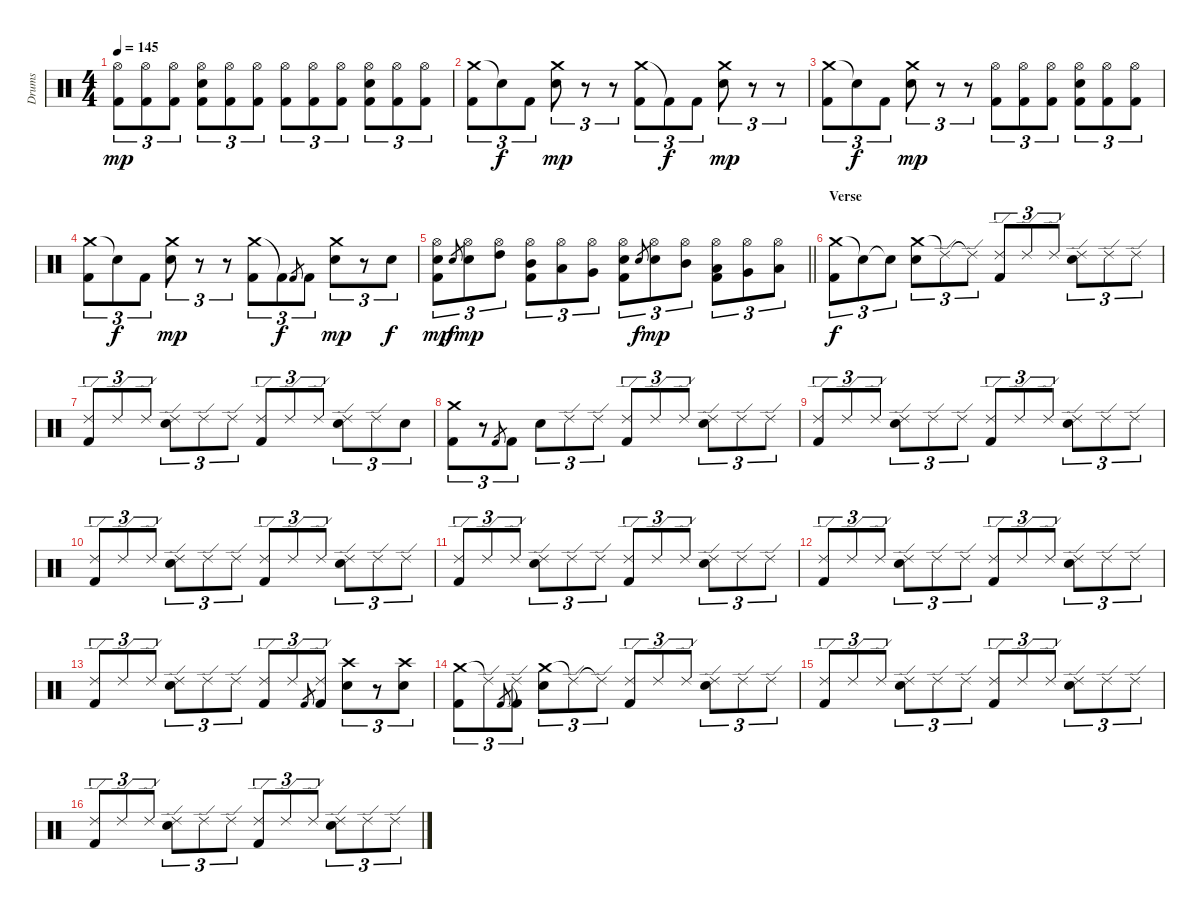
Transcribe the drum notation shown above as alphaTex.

\track ("Drums" "Drums") {instrument percussion}
\staff {score}
\articulation defaults
\ts (4 4)
\tempo 145
\clef neutral
\ks c
("Hi-Hat (open)" "Kick (hit) 2").8{tu (3 2) dy mp} ("Hi-Hat (open)" "Kick (hit) 2").8{tu (3 2)} ("Hi-Hat (open)" "Kick (hit) 2").8{tu (3 2)} ("Hi-Hat (open)" "Snare (hit) 2" "Kick (hit) 2").8{tu (3 2)} ("Hi-Hat (open)" "Kick (hit) 2").8{tu (3 2)} ("Hi-Hat (open)" "Kick (hit) 2").8{tu (3 2)} ("Hi-Hat (open)" "Kick (hit) 2").8{tu (3 2)} ("Hi-Hat (open)" "Kick (hit) 2").8{tu (3 2)} ("Hi-Hat (open)" "Kick (hit) 2").8{tu (3 2)} ("Hi-Hat (open)" "Snare (hit) 2" "Kick (hit) 2").8{tu (3 2)} ("Hi-Hat (open)" "Kick (hit) 2").8{tu (3 2)} ("Hi-Hat (open)" "Kick (hit) 2").8{tu (3 2)} |
("Crash medium (hit)" "Kick (hit) 2").8{tu (3 2)} "Snare (hit)"{t}.8{tu (3 2) dy f} "Kick (hit) 2".8{tu (3 2)} ("Crash medium (hit)" "Snare (hit) 2").8{tu (3 2) dy mp} r.8{tu (3 2)} r.8{tu (3 2)} ("Crash medium (hit)" "Kick (hit) 2").8{tu (3 2)} "Kick (hit) 2"{t}.8{tu (3 2) dy f} "Kick (hit) 2".8{tu (3 2)} ("Crash medium (hit)" "Snare (hit) 2").8{tu (3 2) dy mp} r.8{tu (3 2)} r.8{tu (3 2)} |
("Crash medium (hit)" "Kick (hit) 2").8{tu (3 2)} "Snare (hit)"{t}.8{tu (3 2) dy f} "Kick (hit) 2".8{tu (3 2)} ("Crash medium (hit)" "Snare (hit) 2").8{tu (3 2) dy mp} r.8{tu (3 2)} r.8{tu (3 2)} ("Hi-Hat (open)" "Kick (hit) 2").8{tu (3 2)} ("Hi-Hat (open)" "Kick (hit) 2").8{tu (3 2)} ("Hi-Hat (open)" "Kick (hit) 2").8{tu (3 2)} ("Hi-Hat (open)" "Snare (hit) 2" "Kick (hit) 2").8{tu (3 2)} ("Hi-Hat (open)" "Kick (hit) 2").8{tu (3 2)} ("Hi-Hat (open)" "Kick (hit) 2").8{tu (3 2)} |
("Crash medium (hit)" "Kick (hit) 2").8{tu (3 2)} "Snare (hit)"{t}.8{tu (3 2) dy f} "Kick (hit) 2".8{tu (3 2)} ("Crash medium (hit)" "Snare (hit) 2").8{tu (3 2) dy mp} r.8{tu (3 2)} r.8{tu (3 2)} ("Crash medium (hit)" "Kick (hit) 2").8{tu (3 2)} "Kick (hit) 2"{t}.8{tu (3 2) dy f} "Kick (hit) 2".8{gr} "Kick (hit) 2".8{tu (3 2)} ("Crash medium (hit)" "Snare (hit) 2").8{tu (3 2) dy mp} r.8{tu (3 2)} "Snare (hit) 2".8{tu (3 2) dy f} |
\barLineRight lightlight
("Hi-Hat (open)" "Snare (hit) 2" "Kick (hit) 2").8{tu (3 2) dy mp} "Snare (hit) 2".8{gr dy f} ("Hi-Hat (open)" "Snare (hit) 2").8{tu (3 2) dy mp} ("Hi-Hat (open)" "High Tom (hit)").8{tu (3 2)} ("Hi-Hat (open)" "Mid Tom (hit)" "Kick (hit) 2").8{tu (3 2)} ("Hi-Hat (open)" "Low Tom (hit)").8{tu (3 2)} ("Hi-Hat (open)" "Very Low Tom (hit)").8{tu (3 2)} ("Hi-Hat (open)" "Snare (hit) 2" "Kick (hit) 2").8{tu (3 2)} "Snare (hit) 2".8{gr dy f} ("Hi-Hat (open)" "Snare (hit) 2").8{tu (3 2) dy mp} ("Hi-Hat (open)" "Mid Tom (hit)").8{tu (3 2)} ("Hi-Hat (open)" "Low Tom (hit)" "Kick (hit) 2").8{tu (3 2)} ("Hi-Hat (open)" "Very Low Tom (hit)").8{tu (3 2)} ("Hi-Hat (open)" "Low Floor Tom (hit)").8{tu (3 2)} |
\section ("" "Verse")
("Crash medium (hit)" "Kick (hit) 2").8{tu (3 2) dy f} "Snare (hit)"{t}.8{tu (3 2)} "Snare (hit)"{t}.8{tu (3 2)} ("Crash medium (hit)" "Snare (hit) 2").8{tu (3 2)} "Ride (edge) 2"{t}.8{tu (3 2)} "Ride (edge) 2"{t}.8{tu (3 2)} ("Ride (edge) 2" "Kick (hit) 2").8{tu (3 2)} "Ride (edge) 2".8{tu (3 2)} "Ride (edge) 2".8{tu (3 2)} ("Ride (edge) 2" "Snare (hit) 2").8{tu (3 2)} "Ride (edge) 2".8{tu (3 2)} "Ride (edge) 2".8{tu (3 2)} |
("Ride (edge) 2" "Kick (hit) 2").8{tu (3 2)} "Ride (edge) 2".8{tu (3 2)} "Ride (edge) 2".8{tu (3 2)} ("Ride (edge) 2" "Snare (hit) 2").8{tu (3 2)} "Ride (edge) 2".8{tu (3 2)} "Ride (edge) 2".8{tu (3 2)} ("Ride (edge) 2" "Kick (hit) 2").8{tu (3 2)} "Ride (edge) 2".8{tu (3 2)} "Ride (edge) 2".8{tu (3 2)} ("Ride (edge) 2" "Snare (hit) 2").8{tu (3 2)} "Ride (edge) 2".8{tu (3 2)} "Snare (hit) 2".8{tu (3 2)} |
("Crash medium (hit)" "Kick (hit) 2").8{tu (3 2)} r.8{tu (3 2)} "Kick (hit) 2".8{gr} "Kick (hit) 2".8{tu (3 2)} "Snare (hit) 2".8{tu (3 2)} "Ride (edge) 2".8{tu (3 2)} "Ride (edge) 2".8{tu (3 2)} ("Ride (edge) 2" "Kick (hit) 2").8{tu (3 2)} "Ride (edge) 2".8{tu (3 2)} "Ride (edge) 2".8{tu (3 2)} ("Ride (edge) 2" "Snare (hit) 2").8{tu (3 2)} "Ride (edge) 2".8{tu (3 2)} "Ride (edge) 2".8{tu (3 2)} |
("Ride (edge) 2" "Kick (hit) 2").8{tu (3 2)} "Ride (edge) 2".8{tu (3 2)} "Ride (edge) 2".8{tu (3 2)} ("Ride (edge) 2" "Snare (hit) 2").8{tu (3 2)} "Ride (edge) 2".8{tu (3 2)} "Ride (edge) 2".8{tu (3 2)} ("Ride (edge) 2" "Kick (hit) 2").8{tu (3 2)} "Ride (edge) 2".8{tu (3 2)} "Ride (edge) 2".8{tu (3 2)} ("Ride (edge) 2" "Snare (hit) 2").8{tu (3 2)} "Ride (edge) 2".8{tu (3 2)} "Ride (edge) 2".8{tu (3 2)} |
("Ride (edge) 2" "Kick (hit) 2").8{tu (3 2)} "Ride (edge) 2".8{tu (3 2)} "Ride (edge) 2".8{tu (3 2)} ("Ride (edge) 2" "Snare (hit) 2").8{tu (3 2)} "Ride (edge) 2".8{tu (3 2)} "Ride (edge) 2".8{tu (3 2)} ("Ride (edge) 2" "Kick (hit) 2").8{tu (3 2)} "Ride (edge) 2".8{tu (3 2)} "Ride (edge) 2".8{tu (3 2)} ("Ride (edge) 2" "Snare (hit) 2").8{tu (3 2)} "Ride (edge) 2".8{tu (3 2)} "Ride (edge) 2".8{tu (3 2)} |
("Ride (edge) 2" "Kick (hit) 2").8{tu (3 2)} "Ride (edge) 2".8{tu (3 2)} "Ride (edge) 2".8{tu (3 2)} ("Ride (edge) 2" "Snare (hit) 2").8{tu (3 2)} "Ride (edge) 2".8{tu (3 2)} "Ride (edge) 2".8{tu (3 2)} ("Ride (edge) 2" "Kick (hit) 2").8{tu (3 2)} "Ride (edge) 2".8{tu (3 2)} "Ride (edge) 2".8{tu (3 2)} ("Ride (edge) 2" "Snare (hit) 2").8{tu (3 2)} "Ride (edge) 2".8{tu (3 2)} "Ride (edge) 2".8{tu (3 2)} |
("Ride (edge) 2" "Kick (hit) 2").8{tu (3 2)} "Ride (edge) 2".8{tu (3 2)} "Ride (edge) 2".8{tu (3 2)} ("Ride (edge) 2" "Snare (hit) 2").8{tu (3 2)} "Ride (edge) 2".8{tu (3 2)} "Ride (edge) 2".8{tu (3 2)} ("Ride (edge) 2" "Kick (hit) 2").8{tu (3 2)} "Ride (edge) 2".8{tu (3 2)} "Ride (edge) 2".8{tu (3 2)} ("Ride (edge) 2" "Snare (hit) 2").8{tu (3 2)} "Ride (edge) 2".8{tu (3 2)} "Ride (edge) 2".8{tu (3 2)} |
("Ride (edge) 2" "Kick (hit) 2").8{tu (3 2)} "Ride (edge) 2".8{tu (3 2)} "Ride (edge) 2".8{tu (3 2)} ("Ride (edge) 2" "Snare (hit) 2").8{tu (3 2)} "Ride (edge) 2".8{tu (3 2)} "Ride (edge) 2".8{tu (3 2)} ("Ride (edge) 2" "Kick (hit) 2").8{tu (3 2)} "Ride (edge) 2".8{tu (3 2)} "Kick (hit) 2".8{gr} ("Ride (edge) 2" "Kick (hit) 2").8{tu (3 2)} ("Crash high (hit)" "Snare (hit) 2").8{tu (3 2)} r.8{tu (3 2)} ("Crash high (hit)" "Snare (hit) 2").8{tu (3 2)} |
("Crash medium (hit)" "Kick (hit) 2").8{tu (3 2)} "Ride (edge) 2"{t}.8{tu (3 2)} "Kick (hit) 2".8{gr} ("Ride (edge) 2"{t} "Kick (hit) 2").8{tu (3 2)} ("Crash medium (hit)" "Snare (hit) 2").8{tu (3 2)} "Ride (edge) 2"{t}.8{tu (3 2)} "Ride (edge) 2"{t}.8{tu (3 2)} ("Ride (edge) 2" "Kick (hit) 2").8{tu (3 2)} "Ride (edge) 2".8{tu (3 2)} "Ride (edge) 2".8{tu (3 2)} ("Ride (edge) 2" "Snare (hit) 2").8{tu (3 2)} "Ride (edge) 2".8{tu (3 2)} "Ride (edge) 2".8{tu (3 2)} |
("Ride (edge) 2" "Kick (hit) 2").8{tu (3 2)} "Ride (edge) 2".8{tu (3 2)} "Ride (edge) 2".8{tu (3 2)} ("Ride (edge) 2" "Snare (hit) 2").8{tu (3 2)} "Ride (edge) 2".8{tu (3 2)} "Ride (edge) 2".8{tu (3 2)} ("Ride (edge) 2" "Kick (hit) 2").8{tu (3 2)} "Ride (edge) 2".8{tu (3 2)} "Ride (edge) 2".8{tu (3 2)} ("Ride (edge) 2" "Snare (hit) 2").8{tu (3 2)} "Ride (edge) 2".8{tu (3 2)} "Ride (edge) 2".8{tu (3 2)} |
("Ride (edge) 2" "Kick (hit) 2").8{tu (3 2)} "Ride (edge) 2".8{tu (3 2)} "Ride (edge) 2".8{tu (3 2)} ("Ride (edge) 2" "Snare (hit) 2").8{tu (3 2)} "Ride (edge) 2".8{tu (3 2)} "Ride (edge) 2".8{tu (3 2)} ("Ride (edge) 2" "Kick (hit) 2").8{tu (3 2)} "Ride (edge) 2".8{tu (3 2)} "Ride (edge) 2".8{tu (3 2)} ("Ride (edge) 2" "Snare (hit) 2").8{tu (3 2)} "Ride (edge) 2".8{tu (3 2)} "Ride (edge) 2".8{tu (3 2)}
